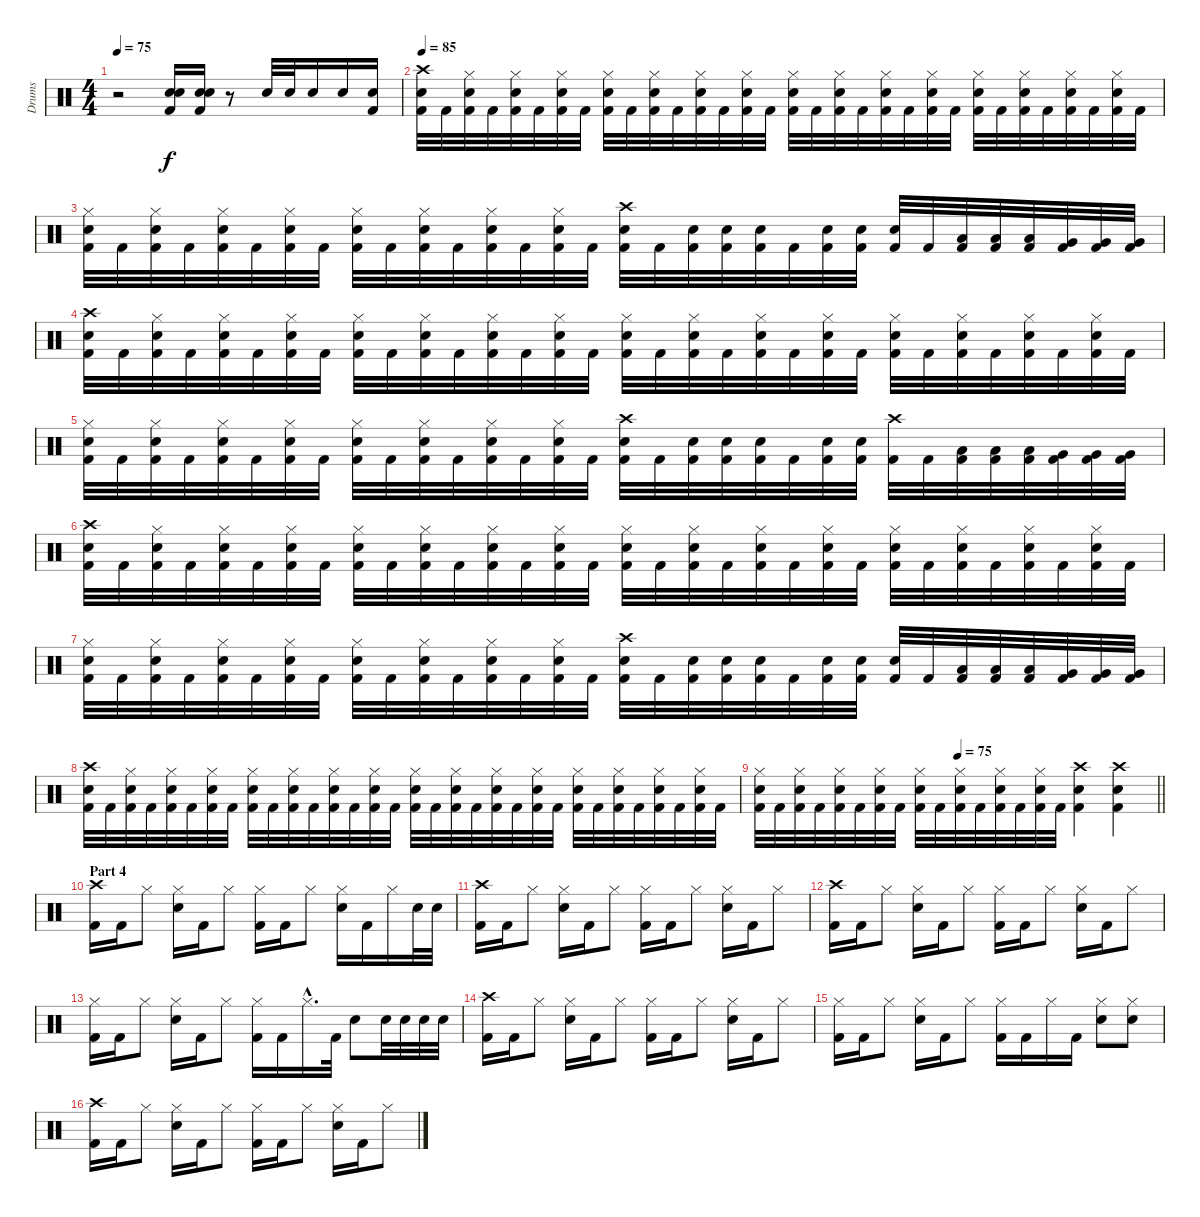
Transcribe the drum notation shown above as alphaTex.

\track ("Drums" "Drums") {instrument percussion}
\staff {score}
\articulation defaults
\ts (4 4)
\tempo 75
\clef neutral
\ks c
r.2{dy f} ("Snare (hit) 2" "Electric Snare (hit)" "Kick (hit) 2").16 ("Snare (hit) 2" "Electric Snare (hit)" "Kick (hit) 2").16 r.8 "Electric Snare (hit)".32 "Electric Snare (hit)".32 "Electric Snare (hit)".16 "Electric Snare (hit)".16 ("Electric Snare (hit)" "Kick (hit) 2").16 |
\tempo 85
("Crash high (hit)" "Electric Snare (hit)" "Kick (hit) 2").32 "Kick (hit) 2".32 ("Hi-Hat (closed)" "Electric Snare (hit)" "Kick (hit) 2").32 "Kick (hit) 2".32 ("Hi-Hat (closed)" "Electric Snare (hit)" "Kick (hit) 2").32 "Kick (hit) 2".32 ("Hi-Hat (closed)" "Electric Snare (hit)" "Kick (hit) 2").32 "Kick (hit) 2".32 ("Hi-Hat (closed)" "Electric Snare (hit)" "Kick (hit) 2").32 "Kick (hit) 2".32 ("Hi-Hat (closed)" "Electric Snare (hit)" "Kick (hit) 2").32 "Kick (hit) 2".32 ("Hi-Hat (closed)" "Electric Snare (hit)" "Kick (hit) 2").32 "Kick (hit) 2".32 ("Hi-Hat (closed)" "Electric Snare (hit)" "Kick (hit) 2").32 "Kick (hit) 2".32 ("Hi-Hat (closed)" "Electric Snare (hit)" "Kick (hit) 2").32 "Kick (hit) 2".32 ("Hi-Hat (closed)" "Electric Snare (hit)" "Kick (hit) 2").32 "Kick (hit) 2".32 ("Hi-Hat (closed)" "Electric Snare (hit)" "Kick (hit) 2").32 "Kick (hit) 2".32 ("Hi-Hat (closed)" "Electric Snare (hit)" "Kick (hit) 2").32 "Kick (hit) 2".32 ("Hi-Hat (closed)" "Electric Snare (hit)" "Kick (hit) 2").32 "Kick (hit) 2".32 ("Hi-Hat (closed)" "Electric Snare (hit)" "Kick (hit) 2").32 "Kick (hit) 2".32 ("Hi-Hat (closed)" "Electric Snare (hit)" "Kick (hit) 2").32 "Kick (hit) 2".32 ("Hi-Hat (closed)" "Electric Snare (hit)" "Kick (hit) 2").32 "Kick (hit) 2".32 |
("Hi-Hat (closed)" "Electric Snare (hit)" "Kick (hit) 2").32 "Kick (hit) 2".32 ("Hi-Hat (closed)" "Electric Snare (hit)" "Kick (hit) 2").32 "Kick (hit) 2".32 ("Hi-Hat (closed)" "Electric Snare (hit)" "Kick (hit) 2").32 "Kick (hit) 2".32 ("Hi-Hat (closed)" "Electric Snare (hit)" "Kick (hit) 2").32 "Kick (hit) 2".32 ("Hi-Hat (closed)" "Electric Snare (hit)" "Kick (hit) 2").32 "Kick (hit) 2".32 ("Hi-Hat (closed)" "Electric Snare (hit)" "Kick (hit) 2").32 "Kick (hit) 2".32 ("Hi-Hat (closed)" "Electric Snare (hit)" "Kick (hit) 2").32 "Kick (hit) 2".32 ("Hi-Hat (closed)" "Electric Snare (hit)" "Kick (hit) 2").32 "Kick (hit) 2".32 ("Crash high (hit)" "Electric Snare (hit)" "Kick (hit) 2").32 "Kick (hit) 2".32 ("Electric Snare (hit)" "Kick (hit) 2").32 ("Electric Snare (hit)" "Kick (hit) 2").32 ("Electric Snare (hit)" "Kick (hit) 2").32 "Kick (hit) 2".32 ("Electric Snare (hit)" "Kick (hit) 2").32 ("Electric Snare (hit)" "Kick (hit) 2").32 ("Electric Snare (hit)" "Kick (hit) 2").32 "Kick (hit) 2".32 ("Low Tom (hit)" "Kick (hit) 2").32 ("Low Tom (hit)" "Kick (hit) 2").32 ("Low Tom (hit)" "Kick (hit) 2").32 ("Very Low Tom (hit)" "Kick (hit) 2").32 ("Very Low Tom (hit)" "Kick (hit) 2").32 ("Very Low Tom (hit)" "Kick (hit) 2").32 |
("Crash high (hit)" "Electric Snare (hit)" "Kick (hit) 2").32 "Kick (hit) 2".32 ("Hi-Hat (closed)" "Electric Snare (hit)" "Kick (hit) 2").32 "Kick (hit) 2".32 ("Hi-Hat (closed)" "Electric Snare (hit)" "Kick (hit) 2").32 "Kick (hit) 2".32 ("Hi-Hat (closed)" "Electric Snare (hit)" "Kick (hit) 2").32 "Kick (hit) 2".32 ("Hi-Hat (closed)" "Electric Snare (hit)" "Kick (hit) 2").32 "Kick (hit) 2".32 ("Hi-Hat (closed)" "Electric Snare (hit)" "Kick (hit) 2").32 "Kick (hit) 2".32 ("Hi-Hat (closed)" "Electric Snare (hit)" "Kick (hit) 2").32 "Kick (hit) 2".32 ("Hi-Hat (closed)" "Electric Snare (hit)" "Kick (hit) 2").32 "Kick (hit) 2".32 ("Hi-Hat (closed)" "Electric Snare (hit)" "Kick (hit) 2").32 "Kick (hit) 2".32 ("Hi-Hat (closed)" "Electric Snare (hit)" "Kick (hit) 2").32 "Kick (hit) 2".32 ("Hi-Hat (closed)" "Electric Snare (hit)" "Kick (hit) 2").32 "Kick (hit) 2".32 ("Hi-Hat (closed)" "Electric Snare (hit)" "Kick (hit) 2").32 "Kick (hit) 2".32 ("Hi-Hat (closed)" "Electric Snare (hit)" "Kick (hit) 2").32 "Kick (hit) 2".32 ("Hi-Hat (closed)" "Electric Snare (hit)" "Kick (hit) 2").32 "Kick (hit) 2".32 ("Hi-Hat (closed)" "Electric Snare (hit)" "Kick (hit) 2").32 "Kick (hit) 2".32 ("Hi-Hat (closed)" "Electric Snare (hit)" "Kick (hit) 2").32 "Kick (hit) 2".32 |
("Hi-Hat (closed)" "Electric Snare (hit)" "Kick (hit) 2").32 "Kick (hit) 2".32 ("Hi-Hat (closed)" "Electric Snare (hit)" "Kick (hit) 2").32 "Kick (hit) 2".32 ("Hi-Hat (closed)" "Electric Snare (hit)" "Kick (hit) 2").32 "Kick (hit) 2".32 ("Hi-Hat (closed)" "Electric Snare (hit)" "Kick (hit) 2").32 "Kick (hit) 2".32 ("Hi-Hat (closed)" "Electric Snare (hit)" "Kick (hit) 2").32 "Kick (hit) 2".32 ("Hi-Hat (closed)" "Electric Snare (hit)" "Kick (hit) 2").32 "Kick (hit) 2".32 ("Hi-Hat (closed)" "Electric Snare (hit)" "Kick (hit) 2").32 "Kick (hit) 2".32 ("Hi-Hat (closed)" "Electric Snare (hit)" "Kick (hit) 2").32 "Kick (hit) 2".32 ("Crash high (hit)" "Electric Snare (hit)" "Kick (hit) 2").32 "Kick (hit) 2".32 ("Electric Snare (hit)" "Kick (hit) 2").32 ("Electric Snare (hit)" "Kick (hit) 2").32 ("Electric Snare (hit)" "Kick (hit) 2").32 "Kick (hit) 2".32 ("Electric Snare (hit)" "Kick (hit) 2").32 ("Electric Snare (hit)" "Kick (hit) 2").32 ("Crash high (hit)" "Kick (hit) 2").32 "Kick (hit) 2".32 ("Low Tom (hit)" "Kick (hit) 2").32 ("Low Tom (hit)" "Kick (hit) 2").32 ("Low Tom (hit)" "Kick (hit) 2").32 ("Very Low Tom (hit)" "Kick (hit) 2").32 ("Very Low Tom (hit)" "Kick (hit) 2").32 ("Very Low Tom (hit)" "Kick (hit) 2").32 |
("Crash high (hit)" "Electric Snare (hit)" "Kick (hit) 2").32 "Kick (hit) 2".32 ("Hi-Hat (closed)" "Electric Snare (hit)" "Kick (hit) 2").32 "Kick (hit) 2".32 ("Hi-Hat (closed)" "Electric Snare (hit)" "Kick (hit) 2").32 "Kick (hit) 2".32 ("Hi-Hat (closed)" "Electric Snare (hit)" "Kick (hit) 2").32 "Kick (hit) 2".32 ("Hi-Hat (closed)" "Electric Snare (hit)" "Kick (hit) 2").32 "Kick (hit) 2".32 ("Hi-Hat (closed)" "Electric Snare (hit)" "Kick (hit) 2").32 "Kick (hit) 2".32 ("Hi-Hat (closed)" "Electric Snare (hit)" "Kick (hit) 2").32 "Kick (hit) 2".32 ("Hi-Hat (closed)" "Electric Snare (hit)" "Kick (hit) 2").32 "Kick (hit) 2".32 ("Hi-Hat (closed)" "Electric Snare (hit)" "Kick (hit) 2").32 "Kick (hit) 2".32 ("Hi-Hat (closed)" "Electric Snare (hit)" "Kick (hit) 2").32 "Kick (hit) 2".32 ("Hi-Hat (closed)" "Electric Snare (hit)" "Kick (hit) 2").32 "Kick (hit) 2".32 ("Hi-Hat (closed)" "Electric Snare (hit)" "Kick (hit) 2").32 "Kick (hit) 2".32 ("Hi-Hat (closed)" "Electric Snare (hit)" "Kick (hit) 2").32 "Kick (hit) 2".32 ("Hi-Hat (closed)" "Electric Snare (hit)" "Kick (hit) 2").32 "Kick (hit) 2".32 ("Hi-Hat (closed)" "Electric Snare (hit)" "Kick (hit) 2").32 "Kick (hit) 2".32 ("Hi-Hat (closed)" "Electric Snare (hit)" "Kick (hit) 2").32 "Kick (hit) 2".32 |
("Hi-Hat (closed)" "Electric Snare (hit)" "Kick (hit) 2").32 "Kick (hit) 2".32 ("Hi-Hat (closed)" "Electric Snare (hit)" "Kick (hit) 2").32 "Kick (hit) 2".32 ("Hi-Hat (closed)" "Electric Snare (hit)" "Kick (hit) 2").32 "Kick (hit) 2".32 ("Hi-Hat (closed)" "Electric Snare (hit)" "Kick (hit) 2").32 "Kick (hit) 2".32 ("Hi-Hat (closed)" "Electric Snare (hit)" "Kick (hit) 2").32 "Kick (hit) 2".32 ("Hi-Hat (closed)" "Electric Snare (hit)" "Kick (hit) 2").32 "Kick (hit) 2".32 ("Hi-Hat (closed)" "Electric Snare (hit)" "Kick (hit) 2").32 "Kick (hit) 2".32 ("Hi-Hat (closed)" "Electric Snare (hit)" "Kick (hit) 2").32 "Kick (hit) 2".32 ("Crash high (hit)" "Electric Snare (hit)" "Kick (hit) 2").32 "Kick (hit) 2".32 ("Electric Snare (hit)" "Kick (hit) 2").32 ("Electric Snare (hit)" "Kick (hit) 2").32 ("Electric Snare (hit)" "Kick (hit) 2").32 "Kick (hit) 2".32 ("Electric Snare (hit)" "Kick (hit) 2").32 ("Electric Snare (hit)" "Kick (hit) 2").32 ("Electric Snare (hit)" "Kick (hit) 2").32 "Kick (hit) 2".32 ("Low Tom (hit)" "Kick (hit) 2").32 ("Low Tom (hit)" "Kick (hit) 2").32 ("Low Tom (hit)" "Kick (hit) 2").32 ("Very Low Tom (hit)" "Kick (hit) 2").32 ("Very Low Tom (hit)" "Kick (hit) 2").32 ("Very Low Tom (hit)" "Kick (hit) 2").32 |
("Crash high (hit)" "Electric Snare (hit)" "Kick (hit) 2").32 "Kick (hit) 2".32 ("Hi-Hat (closed)" "Electric Snare (hit)" "Kick (hit) 2").32 "Kick (hit) 2".32 ("Hi-Hat (closed)" "Electric Snare (hit)" "Kick (hit) 2").32 "Kick (hit) 2".32 ("Hi-Hat (closed)" "Electric Snare (hit)" "Kick (hit) 2").32 "Kick (hit) 2".32 ("Hi-Hat (closed)" "Electric Snare (hit)" "Kick (hit) 2").32 "Kick (hit) 2".32 ("Hi-Hat (closed)" "Electric Snare (hit)" "Kick (hit) 2").32 "Kick (hit) 2".32 ("Hi-Hat (closed)" "Electric Snare (hit)" "Kick (hit) 2").32 "Kick (hit) 2".32 ("Hi-Hat (closed)" "Electric Snare (hit)" "Kick (hit) 2").32 "Kick (hit) 2".32 ("Hi-Hat (closed)" "Electric Snare (hit)" "Kick (hit) 2").32 "Kick (hit) 2".32 ("Hi-Hat (closed)" "Electric Snare (hit)" "Kick (hit) 2").32 "Kick (hit) 2".32 ("Hi-Hat (closed)" "Electric Snare (hit)" "Kick (hit) 2").32 "Kick (hit) 2".32 ("Hi-Hat (closed)" "Electric Snare (hit)" "Kick (hit) 2").32 "Kick (hit) 2".32 ("Hi-Hat (closed)" "Electric Snare (hit)" "Kick (hit) 2").32 "Kick (hit) 2".32 ("Hi-Hat (closed)" "Electric Snare (hit)" "Kick (hit) 2").32 "Kick (hit) 2".32 ("Hi-Hat (closed)" "Electric Snare (hit)" "Kick (hit) 2").32 "Kick (hit) 2".32 ("Hi-Hat (closed)" "Electric Snare (hit)" "Kick (hit) 2").32 "Kick (hit) 2".32 |
\tempo (75 0.5)
\barLineRight lightlight
("Hi-Hat (closed)" "Electric Snare (hit)" "Kick (hit) 2").32 "Kick (hit) 2".32 ("Hi-Hat (closed)" "Electric Snare (hit)" "Kick (hit) 2").32 "Kick (hit) 2".32 ("Hi-Hat (closed)" "Electric Snare (hit)" "Kick (hit) 2").32 "Kick (hit) 2".32 ("Hi-Hat (closed)" "Electric Snare (hit)" "Kick (hit) 2").32 "Kick (hit) 2".32 ("Hi-Hat (closed)" "Electric Snare (hit)" "Kick (hit) 2").32 "Kick (hit) 2".32 ("Hi-Hat (closed)" "Electric Snare (hit)" "Kick (hit) 2").32 "Kick (hit) 2".32 ("Hi-Hat (closed)" "Electric Snare (hit)" "Kick (hit) 2").32 "Kick (hit) 2".32 ("Hi-Hat (closed)" "Electric Snare (hit)" "Kick (hit) 2").32 "Kick (hit) 2".32 ("Crash high (hit)" "Electric Snare (hit)" "Kick (hit) 2").4 ("Crash high (hit)" "Electric Snare (hit)" "Kick (hit) 2").4 |
\section ("" "Part 4")
("Crash high (hit)" "Kick (hit) 2").16 "Kick (hit) 2".16 "Hi-Hat (closed)".8 ("Hi-Hat (closed)" "Electric Snare (hit)").16 "Kick (hit) 2".16 "Hi-Hat (closed)".8 ("Hi-Hat (closed)" "Kick (hit) 2").16 "Kick (hit) 2".16 "Hi-Hat (closed)".8 ("Hi-Hat (closed)" "Electric Snare (hit)").16 "Kick (hit) 2".16 "Hi-Hat (closed)".16 "Electric Snare (hit)".32 "Electric Snare (hit)".32 |
("Crash high (hit)" "Kick (hit) 2").16 "Kick (hit) 2".16 "Hi-Hat (closed)".8 ("Hi-Hat (closed)" "Electric Snare (hit)").16 "Kick (hit) 2".16 "Hi-Hat (closed)".8 ("Hi-Hat (closed)" "Kick (hit) 2").16 "Kick (hit) 2".16 "Hi-Hat (closed)".8 ("Hi-Hat (closed)" "Electric Snare (hit)").16 "Kick (hit) 2".16 "Hi-Hat (closed)".8 |
("Crash high (hit)" "Kick (hit) 2").16 "Kick (hit) 2".16 "Hi-Hat (closed)".8 ("Hi-Hat (closed)" "Electric Snare (hit)").16 "Kick (hit) 2".16 "Hi-Hat (closed)".8 ("Hi-Hat (closed)" "Kick (hit) 2").16 "Kick (hit) 2".16 "Hi-Hat (closed)".8 ("Hi-Hat (closed)" "Electric Snare (hit)").16 "Kick (hit) 2".16 "Hi-Hat (closed)".8 |
("Hi-Hat (closed)" "Kick (hit) 2").16 "Kick (hit) 2".16 "Hi-Hat (closed)".8 ("Hi-Hat (closed)" "Electric Snare (hit)").16 "Kick (hit) 2".16 "Hi-Hat (closed)".8 ("Hi-Hat (closed)" "Kick (hit) 2").16 "Kick (hit) 2".16 "Hi-Hat (closed)"{hac}.16{d} "Kick (hit) 2".32 "Electric Snare (hit)".8 "Electric Snare (hit)".32 "Electric Snare (hit)".32 "Electric Snare (hit)".32 "Electric Snare (hit)".32 |
("Crash high (hit)" "Kick (hit) 2").16 "Kick (hit) 2".16 "Hi-Hat (closed)".8 ("Hi-Hat (closed)" "Electric Snare (hit)").16 "Kick (hit) 2".16 "Hi-Hat (closed)".8 ("Hi-Hat (closed)" "Kick (hit) 2").16 "Kick (hit) 2".16 "Hi-Hat (closed)".8 ("Hi-Hat (closed)" "Electric Snare (hit)").16 "Kick (hit) 2".16 "Hi-Hat (closed)".8 |
("Hi-Hat (closed)" "Kick (hit) 2").16 "Kick (hit) 2".16 "Hi-Hat (closed)".8 ("Hi-Hat (closed)" "Electric Snare (hit)").16 "Kick (hit) 2".16 "Hi-Hat (closed)".8 ("Hi-Hat (closed)" "Kick (hit) 2").16 "Kick (hit) 2".16 "Hi-Hat (closed)".16 "Kick (hit) 2".16 ("Hi-Hat (closed)" "Electric Snare (hit)").8 ("Hi-Hat (closed)" "Electric Snare (hit)").8 |
("Crash high (hit)" "Kick (hit) 2").16 "Kick (hit) 2".16 "Hi-Hat (closed)".8 ("Hi-Hat (closed)" "Electric Snare (hit)").16 "Kick (hit) 2".16 "Hi-Hat (closed)".8 ("Hi-Hat (closed)" "Kick (hit) 2").16 "Kick (hit) 2".16 "Hi-Hat (closed)".8 ("Hi-Hat (closed)" "Electric Snare (hit)").16 "Kick (hit) 2".16 "Hi-Hat (closed)".8
